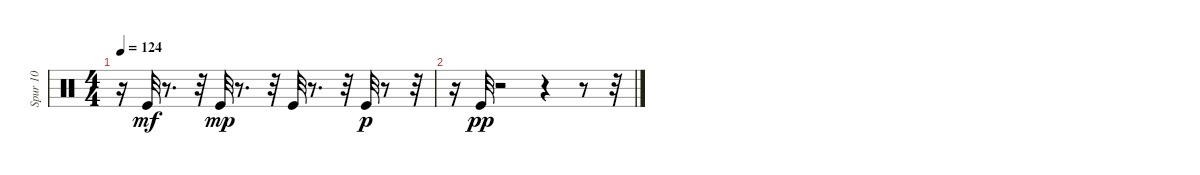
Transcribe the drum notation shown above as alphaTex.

\track ("Spur 10" "Spur 10") {instrument percussion}
\staff {score}
\articulation defaults
\ts (4 4)
\tempo 124
\clef neutral
\ks c
r.16{dy f} "Kick (hit)".32{dy mf} r.8{d} r.32 "Kick (hit)".32{dy mp} r.8{d} r.32 "Kick (hit)".32 r.8{d} r.32 "Kick (hit)".32{dy p} r.8 r.32 |
r.16 "Kick (hit)".32{dy pp} r.2 r.4 r.8 r.32
